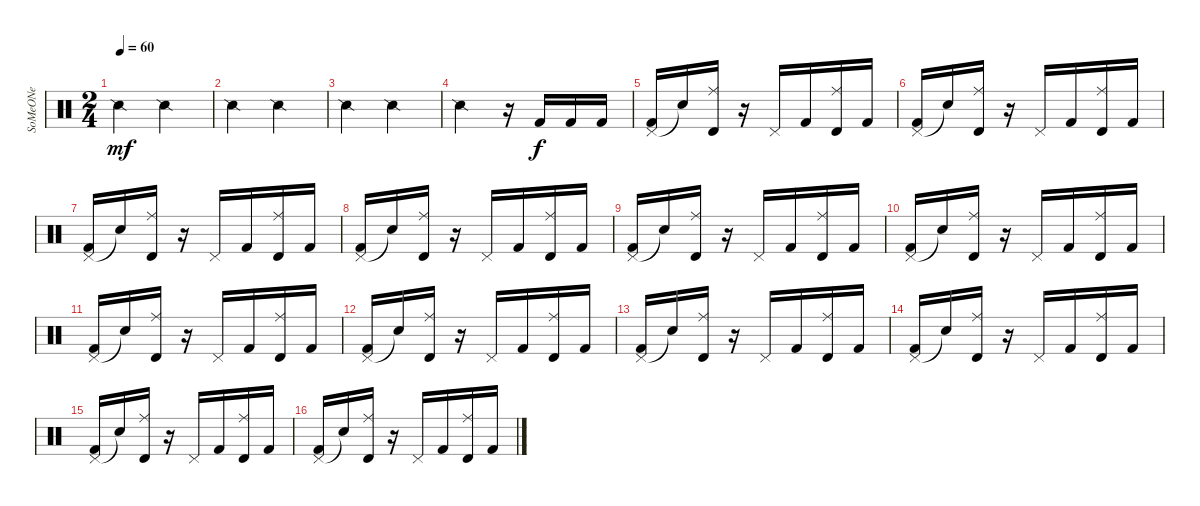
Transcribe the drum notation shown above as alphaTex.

\track ("SoMeONe" "SoMeONe") {instrument percussion}
\staff {score}
\articulation defaults
\ts (2 4)
\tempo 60
\clef neutral
\ks c "Snare (side stick) 2".4{dy mf} "Snare (side stick) 2".4
|
"Snare (side stick) 2".4 "Snare (side stick) 2".4 |
"Snare (side stick) 2".4 "Snare (side stick) 2".4 |
"Snare (side stick) 2".4 r.16 "Kick (hit) 2".16{dy f} "Kick (hit) 2".16 "Kick (hit) 2".16 |
("Pedal Hi-Hat (hit)" "Kick (hit) 2").16 "Snare (hit)"{t}.16 ("Ride (middle)" "Timbale high (hit)").16 r.16 "Pedal Hi-Hat (hit)".16 "Kick (hit) 2".16 ("Ride (middle)" "Timbale high (hit)").16 "Kick (hit) 2".16 |
("Pedal Hi-Hat (hit)" "Kick (hit) 2").16 "Snare (hit)"{t}.16 ("Ride (middle)" "Timbale high (hit)").16 r.16 "Pedal Hi-Hat (hit)".16 "Kick (hit) 2".16 ("Ride (middle)" "Timbale high (hit)").16 "Kick (hit) 2".16 |
("Pedal Hi-Hat (hit)" "Kick (hit) 2").16 "Snare (hit)"{t}.16 ("Ride (middle)" "Timbale high (hit)").16 r.16 "Pedal Hi-Hat (hit)".16 "Kick (hit) 2".16 ("Ride (middle)" "Timbale high (hit)").16 "Kick (hit) 2".16 |
("Pedal Hi-Hat (hit)" "Kick (hit) 2").16 "Snare (hit)"{t}.16 ("Ride (middle)" "Timbale high (hit)").16 r.16 "Pedal Hi-Hat (hit)".16 "Kick (hit) 2".16 ("Ride (middle)" "Timbale high (hit)").16 "Kick (hit) 2".16 |
("Pedal Hi-Hat (hit)" "Kick (hit) 2").16 "Snare (hit)"{t}.16 ("Ride (middle)" "Timbale high (hit)").16 r.16 "Pedal Hi-Hat (hit)".16 "Kick (hit) 2".16 ("Ride (middle)" "Timbale high (hit)").16 "Kick (hit) 2".16 |
("Pedal Hi-Hat (hit)" "Kick (hit) 2").16 "Snare (hit)"{t}.16 ("Ride (middle)" "Timbale high (hit)").16 r.16 "Pedal Hi-Hat (hit)".16 "Kick (hit) 2".16 ("Ride (middle)" "Timbale high (hit)").16 "Kick (hit) 2".16 |
("Pedal Hi-Hat (hit)" "Kick (hit) 2").16 "Snare (hit)"{t}.16 ("Ride (middle)" "Timbale high (hit)").16 r.16 "Pedal Hi-Hat (hit)".16 "Kick (hit) 2".16 ("Ride (middle)" "Timbale high (hit)").16 "Kick (hit) 2".16 |
("Pedal Hi-Hat (hit)" "Kick (hit) 2").16 "Snare (hit)"{t}.16 ("Ride (middle)" "Timbale high (hit)").16 r.16 "Pedal Hi-Hat (hit)".16 "Kick (hit) 2".16 ("Ride (middle)" "Timbale high (hit)").16 "Kick (hit) 2".16 |
("Pedal Hi-Hat (hit)" "Kick (hit) 2").16 "Snare (hit)"{t}.16 ("Ride (middle)" "Timbale high (hit)").16 r.16 "Pedal Hi-Hat (hit)".16 "Kick (hit) 2".16 ("Ride (middle)" "Timbale high (hit)").16 "Kick (hit) 2".16 |
("Pedal Hi-Hat (hit)" "Kick (hit) 2").16 "Snare (hit)"{t}.16 ("Ride (middle)" "Timbale high (hit)").16 r.16 "Pedal Hi-Hat (hit)".16 "Kick (hit) 2".16 ("Ride (middle)" "Timbale high (hit)").16 "Kick (hit) 2".16 |
("Pedal Hi-Hat (hit)" "Kick (hit) 2").16 "Snare (hit)"{t}.16 ("Ride (middle)" "Timbale high (hit)").16 r.16 "Pedal Hi-Hat (hit)".16 "Kick (hit) 2".16 ("Ride (middle)" "Timbale high (hit)").16 "Kick (hit) 2".16 |
("Pedal Hi-Hat (hit)" "Kick (hit) 2").16 "Snare (hit)"{t}.16 ("Ride (middle)" "Timbale high (hit)").16 r.16 "Pedal Hi-Hat (hit)".16 "Kick (hit) 2".16 ("Ride (middle)" "Timbale high (hit)").16 "Kick (hit) 2".16
